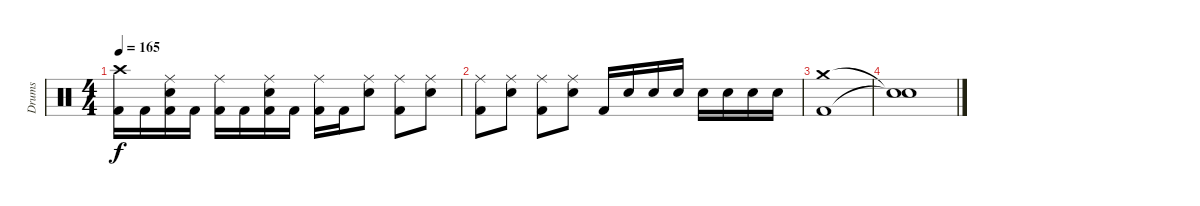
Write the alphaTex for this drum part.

\track ("Drums" "Drums") {instrument percussion}
\staff {score}
\articulation defaults
\ts (4 4)
\tempo 165
\clef neutral
\ks c
("Crash high (hit)" "Kick (hit) 2").16{dy f} "Kick (hit) 2".16 ("Ride (middle)" "Electric Snare (hit)" "Kick (hit) 2").16 "Kick (hit) 2".16 ("Ride (middle)" "Kick (hit) 2").16 "Kick (hit) 2".16 ("Ride (middle)" "Electric Snare (hit)" "Kick (hit) 2").16 "Kick (hit) 2".16 ("Ride (middle)" "Kick (hit) 2").16 "Kick (hit) 2".16 ("Ride (middle)" "Electric Snare (hit)").8 ("Ride (middle)" "Kick (hit) 2").8 ("Ride (middle)" "Electric Snare (hit)").8 |
("Ride (middle)" "Kick (hit) 2").8 ("Ride (middle)" "Electric Snare (hit)").8 ("Ride (middle)" "Kick (hit) 2").8 ("Ride (middle)" "Electric Snare (hit)").8 "Kick (hit) 2".16 "Electric Snare (hit)".16 "Electric Snare (hit)".16 "Electric Snare (hit)".16 "Electric Snare (hit)".16 "Electric Snare (hit)".16 "Electric Snare (hit)".16 "Electric Snare (hit)".16 |
("Crash medium (hit)" "Kick (hit) 2").1 |
("Snare (hit)"{t} "Snare (hit)"{t}).1
